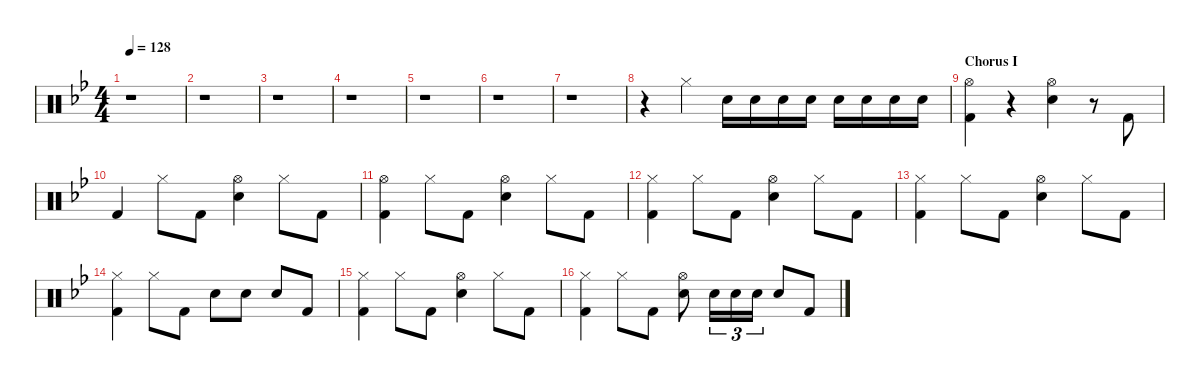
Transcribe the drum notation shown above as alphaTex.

\defaultSystemsLayout 4
\hideDynamics
\bracketExtendMode groupsimilarinstruments
\singleTrackTrackNamePolicy hidden
\multiTrackTrackNamePolicy hidden
\firstSystemTrackNameMode fullname
\firstSystemTrackNameOrientation horizontal
\otherSystemsTrackNameOrientation horizontal
\extendBarLines
\track ("Drums" "drm.") {instrument percussion}
\staff {score}
\articulation defaults
\ts (4 4)
\tempo 128
\clef neutral
\ks bb
r.1{dy f beam Down} |
r.1{beam Down} |
r.1{beam Down} |
r.1{beam Down} |
r.1{beam Down} |
r.1{beam Down} |
r.1{beam Down} |
r.4{beam Down} "Hi-Hat (closed)"{acc forcenatural}.4{beam Down} "Snare (hit) 2"{acc forcenatural}.16{beam Down} "Snare (hit) 2"{acc forcenatural}.16{beam Down} "Snare (hit) 2"{acc forcenatural}.16{beam Down} "Snare (hit) 2"{acc forcenatural}.16{beam Down} "Snare (hit) 2"{acc forcenatural}.16{beam Down} "Snare (hit) 2"{acc forcenatural}.16{beam Down} "Snare (hit) 2"{acc forcenatural}.16{beam Down} "Snare (hit) 2"{acc forcenatural}.16{beam Down} |
\section ("" "Chorus I")
("Hi-Hat (open)"{acc forcenatural} "Kick (hit) 2"{acc forcenatural}).4{beam Down} r.4{beam Down} ("Hi-Hat (open)"{acc forcenatural} "Snare (hit) 2"{acc forcenatural}).4{beam Down} r.8{beam Down} "Kick (hit) 2"{acc forcenatural}.8{beam Up} |
"Kick (hit) 2"{acc forcenatural}.4{beam Up} "Hi-Hat (closed)"{acc forcenatural}.8{beam Down} "Kick (hit) 2"{acc forcenatural}.8{beam Down} ("Hi-Hat (open)"{acc forcenatural} "Snare (hit) 2"{acc forcenatural}).4{beam Down} "Hi-Hat (closed)"{acc forcenatural}.8{beam Down} "Kick (hit) 2"{acc forcenatural}.8{beam Down} |
("Hi-Hat (open)"{acc forcenatural} "Kick (hit) 2"{acc forcenatural}).4{beam Down} "Hi-Hat (closed)"{acc forcenatural}.8{beam Down} "Kick (hit) 2"{acc forcenatural}.8{beam Down} ("Hi-Hat (open)"{acc forcenatural} "Snare (hit) 2"{acc forcenatural}).4{beam Down} "Hi-Hat (closed)"{acc forcenatural}.8{beam Down} "Kick (hit) 2"{acc forcenatural}.8{beam Down} |
("Hi-Hat (closed)"{acc forcenatural} "Kick (hit) 2"{acc forcenatural}).4{beam Down} "Hi-Hat (closed)"{acc forcenatural}.8{beam Down} "Kick (hit) 2"{acc forcenatural}.8{beam Down} ("Hi-Hat (open)"{acc forcenatural} "Snare (hit) 2"{acc forcenatural}).4{beam Down} "Hi-Hat (closed)"{acc forcenatural}.8{beam Down} "Kick (hit) 2"{acc forcenatural}.8{beam Down} |
("Hi-Hat (closed)"{acc forcenatural} "Kick (hit) 2"{acc forcenatural}).4{beam Down} "Hi-Hat (closed)"{acc forcenatural}.8{beam Down} "Kick (hit) 2"{acc forcenatural}.8{beam Down} ("Hi-Hat (open)"{acc forcenatural} "Snare (hit) 2"{acc forcenatural}).4{beam Down} "Hi-Hat (closed)"{acc forcenatural}.8{beam Down} "Kick (hit) 2"{acc forcenatural}.8{beam Down} |
("Hi-Hat (closed)"{acc forcenatural} "Kick (hit) 2"{acc forcenatural}).4{beam Down} "Hi-Hat (closed)"{acc forcenatural}.8{beam Down} "Kick (hit) 2"{acc forcenatural}.8{beam Down} "Snare (hit) 2"{acc forcenatural}.8{beam Down} "Snare (hit) 2"{acc forcenatural}.8{beam Down} "Snare (hit) 2"{acc forcenatural}.8{beam Up} "Kick (hit) 2"{acc forcenatural}.8{beam Up} |
("Hi-Hat (closed)"{acc forcenatural} "Kick (hit) 2"{acc forcenatural}).4{beam Down} "Hi-Hat (closed)"{acc forcenatural}.8{beam Down} "Kick (hit) 2"{acc forcenatural}.8{beam Down} ("Hi-Hat (open)"{acc forcenatural} "Snare (hit) 2"{acc forcenatural}).4{beam Down} "Hi-Hat (closed)"{acc forcenatural}.8{beam Down} "Kick (hit) 2"{acc forcenatural}.8{beam Down} |
("Hi-Hat (closed)"{acc forcenatural} "Kick (hit) 2"{acc forcenatural}).4{beam Down} "Hi-Hat (closed)"{acc forcenatural}.8{beam Down} "Kick (hit) 2"{acc forcenatural}.8{beam Down} ("Hi-Hat (open)"{acc forcenatural} "Snare (hit) 2"{acc forcenatural}).8{beam Down} "Snare (hit) 2"{acc forcenatural}.16{tu (3 2) beam Down} "Snare (hit) 2"{acc forcenatural}.16{tu (3 2) beam Down} "Snare (hit) 2"{acc forcenatural}.16{tu (3 2) beam Down} "Snare (hit) 2"{acc forcenatural}.8{beam Up} "Kick (hit) 2"{acc forcenatural}.8{beam Up}
